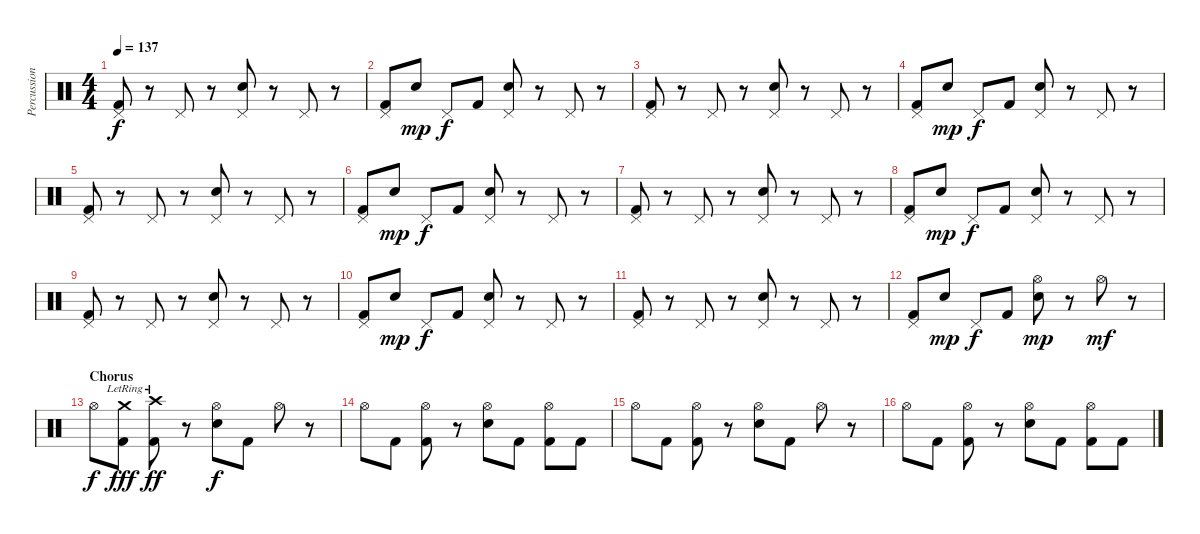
\track ("Percussions" "Percussion") {instrument percussion}
\staff {score}
\articulation defaults
\ts (4 4)
\tempo 137
\clef neutral
\ks c
("Pedal Hi-Hat (hit)" "Kick (hit) 2").8{dy f} r.8 "Pedal Hi-Hat (hit)".8 r.8 ("Pedal Hi-Hat (hit)" "Electric Snare (hit)").8 r.8 "Pedal Hi-Hat (hit)".8 r.8 |
("Pedal Hi-Hat (hit)" "Kick (hit) 2").8 "Electric Snare (hit)".8{dy mp} "Pedal Hi-Hat (hit)".8{dy f} "Kick (hit) 2".8 ("Pedal Hi-Hat (hit)" "Electric Snare (hit)").8 r.8 "Pedal Hi-Hat (hit)".8 r.8 |
("Pedal Hi-Hat (hit)" "Kick (hit) 2").8 r.8 "Pedal Hi-Hat (hit)".8 r.8 ("Pedal Hi-Hat (hit)" "Electric Snare (hit)").8 r.8 "Pedal Hi-Hat (hit)".8 r.8 |
("Pedal Hi-Hat (hit)" "Kick (hit) 2").8 "Electric Snare (hit)".8{dy mp} "Pedal Hi-Hat (hit)".8{dy f} "Kick (hit) 2".8 ("Pedal Hi-Hat (hit)" "Electric Snare (hit)").8 r.8 "Pedal Hi-Hat (hit)".8 r.8 |
("Pedal Hi-Hat (hit)" "Kick (hit) 2").8 r.8 "Pedal Hi-Hat (hit)".8 r.8 ("Pedal Hi-Hat (hit)" "Electric Snare (hit)").8 r.8 "Pedal Hi-Hat (hit)".8 r.8 |
("Pedal Hi-Hat (hit)" "Kick (hit) 2").8 "Electric Snare (hit)".8{dy mp} "Pedal Hi-Hat (hit)".8{dy f} "Kick (hit) 2".8 ("Pedal Hi-Hat (hit)" "Electric Snare (hit)").8 r.8 "Pedal Hi-Hat (hit)".8 r.8 |
("Pedal Hi-Hat (hit)" "Kick (hit) 2").8 r.8 "Pedal Hi-Hat (hit)".8 r.8 ("Pedal Hi-Hat (hit)" "Electric Snare (hit)").8 r.8 "Pedal Hi-Hat (hit)".8 r.8 |
("Pedal Hi-Hat (hit)" "Kick (hit) 2").8 "Electric Snare (hit)".8{dy mp} "Pedal Hi-Hat (hit)".8{dy f} "Kick (hit) 2".8 ("Pedal Hi-Hat (hit)" "Electric Snare (hit)").8 r.8 "Pedal Hi-Hat (hit)".8 r.8 |
("Pedal Hi-Hat (hit)" "Kick (hit) 2").8 r.8 "Pedal Hi-Hat (hit)".8 r.8 ("Pedal Hi-Hat (hit)" "Electric Snare (hit)").8 r.8 "Pedal Hi-Hat (hit)".8 r.8 |
("Pedal Hi-Hat (hit)" "Kick (hit) 2").8 "Electric Snare (hit)".8{dy mp} "Pedal Hi-Hat (hit)".8{dy f} "Kick (hit) 2".8 ("Pedal Hi-Hat (hit)" "Electric Snare (hit)").8 r.8 "Pedal Hi-Hat (hit)".8 r.8 |
("Pedal Hi-Hat (hit)" "Kick (hit) 2").8 r.8 "Pedal Hi-Hat (hit)".8 r.8 ("Pedal Hi-Hat (hit)" "Electric Snare (hit)").8 r.8 "Pedal Hi-Hat (hit)".8 r.8 |
("Pedal Hi-Hat (hit)" "Kick (hit) 2").8 "Electric Snare (hit)".8{dy mp} "Pedal Hi-Hat (hit)".8{dy f} "Kick (hit) 2".8 ("Hi-Hat (open)" "Electric Snare (hit)").8{dy mp} r.8 "Hi-Hat (open)".8{dy mf} r.8 |
\section ("" "Chorus")
"Hi-Hat (open)".8{dy f} ("Crash medium (hit)"{lr} "Kick (hit) 2").8{dy fff} ("Crash high (hit)"{lr} "Kick (hit) 2").8{dy ff} r.8 ("Hi-Hat (open)" "Electric Snare (hit)").8{dy f} "Kick (hit) 2".8 "Hi-Hat (open)".8 r.8 |
"Hi-Hat (open)".8 "Kick (hit) 2".8 ("Hi-Hat (open)" "Kick (hit) 2").8 r.8 ("Hi-Hat (open)" "Electric Snare (hit)").8 "Kick (hit) 2".8 ("Hi-Hat (open)" "Kick (hit) 2").8 "Kick (hit) 2".8 |
"Hi-Hat (open)".8 "Kick (hit) 2".8 ("Hi-Hat (open)" "Kick (hit) 2").8 r.8 ("Hi-Hat (open)" "Electric Snare (hit)").8 "Kick (hit) 2".8 "Hi-Hat (open)".8 r.8 |
"Hi-Hat (open)".8 "Kick (hit) 2".8 ("Hi-Hat (open)" "Kick (hit) 2").8 r.8 ("Hi-Hat (open)" "Electric Snare (hit)").8 "Kick (hit) 2".8 ("Hi-Hat (open)" "Kick (hit) 2").8 "Kick (hit) 2".8
